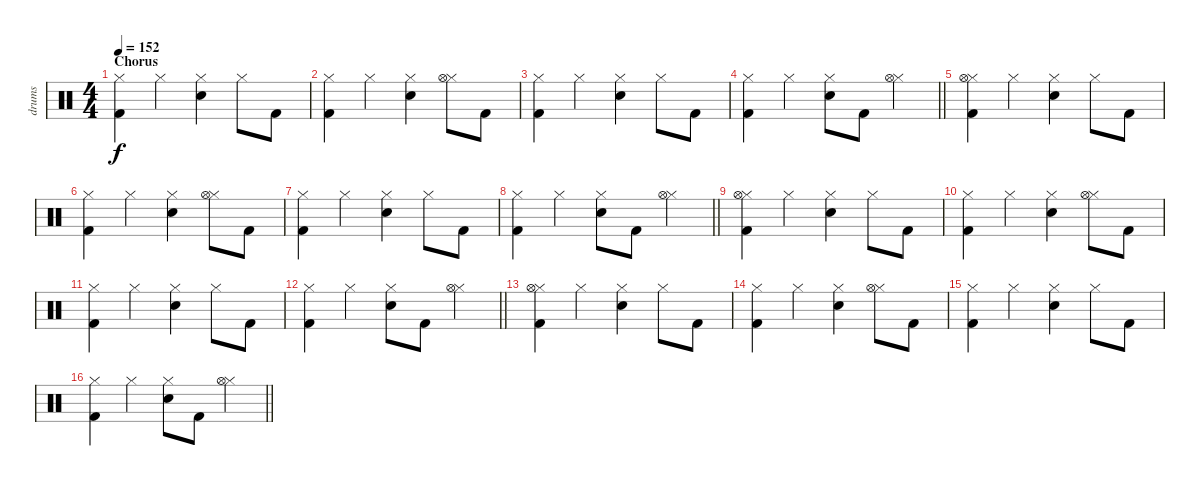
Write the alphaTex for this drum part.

\track ("drums" "drums") {instrument percussion}
\staff {score}
\articulation defaults
\ts (4 4)
\section ("" "Chorus")
\tempo 152
\clef neutral
\ks c
("Hi-Hat (closed)" "Kick (hit) 2").4{dy f} "Hi-Hat (closed)".4 ("Hi-Hat (closed)" "Electric Snare (hit)").4 "Hi-Hat (closed)".8 "Kick (hit) 2".8 |
("Hi-Hat (closed)" "Kick (hit) 2").4 "Hi-Hat (closed)".4 ("Hi-Hat (closed)" "Electric Snare (hit)").4 ("Hi-Hat (closed)" "Hi-Hat (open)").8 "Kick (hit) 2".8 |
("Hi-Hat (closed)" "Kick (hit) 2").4 "Hi-Hat (closed)".4 ("Hi-Hat (closed)" "Electric Snare (hit)").4 "Hi-Hat (closed)".8 "Kick (hit) 2".8 |
\barLineRight lightlight
("Hi-Hat (closed)" "Kick (hit) 2").4 "Hi-Hat (closed)".4 ("Hi-Hat (closed)" "Electric Snare (hit)").8 "Kick (hit) 2".8 ("Hi-Hat (closed)" "Hi-Hat (open)").4 |
("Hi-Hat (closed)" "Hi-Hat (open)" "Kick (hit) 2").4 "Hi-Hat (closed)".4 ("Hi-Hat (closed)" "Electric Snare (hit)").4 "Hi-Hat (closed)".8 "Kick (hit) 2".8 |
("Hi-Hat (closed)" "Kick (hit) 2").4 "Hi-Hat (closed)".4 ("Hi-Hat (closed)" "Electric Snare (hit)").4 ("Hi-Hat (closed)" "Hi-Hat (open)").8 "Kick (hit) 2".8 |
("Hi-Hat (closed)" "Kick (hit) 2").4 "Hi-Hat (closed)".4 ("Hi-Hat (closed)" "Electric Snare (hit)").4 "Hi-Hat (closed)".8 "Kick (hit) 2".8 |
\barLineRight lightlight
("Hi-Hat (closed)" "Kick (hit) 2").4 "Hi-Hat (closed)".4 ("Hi-Hat (closed)" "Electric Snare (hit)").8 "Kick (hit) 2".8 ("Hi-Hat (closed)" "Hi-Hat (open)").4 |
("Hi-Hat (closed)" "Hi-Hat (open)" "Kick (hit) 2").4 "Hi-Hat (closed)".4 ("Hi-Hat (closed)" "Electric Snare (hit)").4 "Hi-Hat (closed)".8 "Kick (hit) 2".8 |
("Hi-Hat (closed)" "Kick (hit) 2").4 "Hi-Hat (closed)".4 ("Hi-Hat (closed)" "Electric Snare (hit)").4 ("Hi-Hat (closed)" "Hi-Hat (open)").8 "Kick (hit) 2".8 |
("Hi-Hat (closed)" "Kick (hit) 2").4 "Hi-Hat (closed)".4 ("Hi-Hat (closed)" "Electric Snare (hit)").4 "Hi-Hat (closed)".8 "Kick (hit) 2".8 |
\barLineRight lightlight
("Hi-Hat (closed)" "Kick (hit) 2").4 "Hi-Hat (closed)".4 ("Hi-Hat (closed)" "Electric Snare (hit)").8 "Kick (hit) 2".8 ("Hi-Hat (closed)" "Hi-Hat (open)").4 |
("Hi-Hat (closed)" "Hi-Hat (open)" "Kick (hit) 2").4 "Hi-Hat (closed)".4 ("Hi-Hat (closed)" "Electric Snare (hit)").4 "Hi-Hat (closed)".8 "Kick (hit) 2".8 |
("Hi-Hat (closed)" "Kick (hit) 2").4 "Hi-Hat (closed)".4 ("Hi-Hat (closed)" "Electric Snare (hit)").4 ("Hi-Hat (closed)" "Hi-Hat (open)").8 "Kick (hit) 2".8 |
("Hi-Hat (closed)" "Kick (hit) 2").4 "Hi-Hat (closed)".4 ("Hi-Hat (closed)" "Electric Snare (hit)").4 "Hi-Hat (closed)".8 "Kick (hit) 2".8 |
\barLineRight lightlight
("Hi-Hat (closed)" "Kick (hit) 2").4 "Hi-Hat (closed)".4 ("Hi-Hat (closed)" "Electric Snare (hit)").8 "Kick (hit) 2".8 ("Hi-Hat (closed)" "Hi-Hat (open)").4
